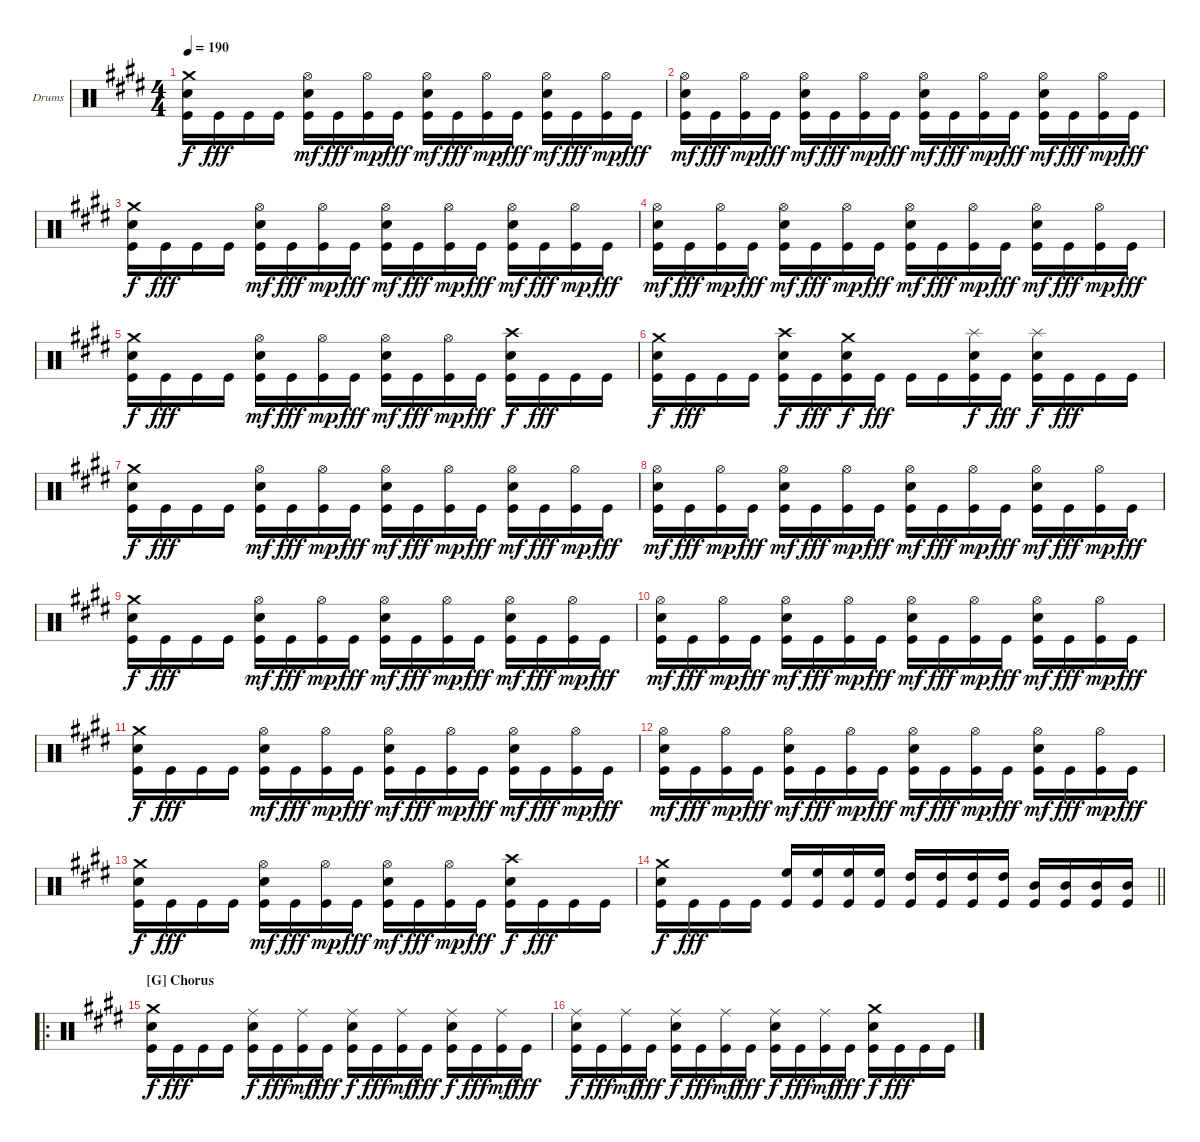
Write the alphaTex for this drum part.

\bracketExtendMode groupsimilarinstruments
\firstSystemTrackNameOrientation horizontal
\otherSystemsTrackNameOrientation horizontal
\track ("Drumkit" "Drums") {instrument percussion}
\staff {score}
\articulation defaults
\ts (4 4)
\tempo 190
\clef neutral
\ks c#minor
("Crash medium (hit)" "Snare (hit) 2" "Kick (hit)").16{dy f} "Kick (hit)".16{dy fff} "Kick (hit)".16 "Kick (hit)".16 ("Hi-Hat (open)" "Snare (hit) 2" "Kick (hit)").16{dy mf} "Kick (hit)".16{dy fff} ("Hi-Hat (open)" "Kick (hit)").16{dy mp} "Kick (hit)".16{dy fff} ("Hi-Hat (open)" "Snare (hit) 2" "Kick (hit)").16{dy mf} "Kick (hit)".16{dy fff} ("Hi-Hat (open)" "Kick (hit)").16{dy mp} "Kick (hit)".16{dy fff} ("Hi-Hat (open)" "Snare (hit) 2" "Kick (hit)").16{dy mf} "Kick (hit)".16{dy fff} ("Hi-Hat (open)" "Kick (hit)").16{dy mp} "Kick (hit)".16{dy fff} |
("Hi-Hat (open)" "Snare (hit) 2" "Kick (hit)").16{dy mf} "Kick (hit)".16{dy fff} ("Hi-Hat (open)" "Kick (hit)").16{dy mp} "Kick (hit)".16{dy fff} ("Hi-Hat (open)" "Snare (hit) 2" "Kick (hit)").16{dy mf} "Kick (hit)".16{dy fff} ("Hi-Hat (open)" "Kick (hit)").16{dy mp} "Kick (hit)".16{dy fff} ("Hi-Hat (open)" "Snare (hit) 2" "Kick (hit)").16{dy mf} "Kick (hit)".16{dy fff} ("Hi-Hat (open)" "Kick (hit)").16{dy mp} "Kick (hit)".16{dy fff} ("Hi-Hat (open)" "Snare (hit) 2" "Kick (hit)").16{dy mf} "Kick (hit)".16{dy fff} ("Hi-Hat (open)" "Kick (hit)").16{dy mp} "Kick (hit)".16{dy fff} |
("Crash medium (hit)" "Snare (hit) 2" "Kick (hit)").16{dy f} "Kick (hit)".16{dy fff} "Kick (hit)".16 "Kick (hit)".16 ("Hi-Hat (open)" "Snare (hit) 2" "Kick (hit)").16{dy mf} "Kick (hit)".16{dy fff} ("Hi-Hat (open)" "Kick (hit)").16{dy mp} "Kick (hit)".16{dy fff} ("Hi-Hat (open)" "Snare (hit) 2" "Kick (hit)").16{dy mf} "Kick (hit)".16{dy fff} ("Hi-Hat (open)" "Kick (hit)").16{dy mp} "Kick (hit)".16{dy fff} ("Hi-Hat (open)" "Snare (hit) 2" "Kick (hit)").16{dy mf} "Kick (hit)".16{dy fff} ("Hi-Hat (open)" "Kick (hit)").16{dy mp} "Kick (hit)".16{dy fff} |
("Hi-Hat (open)" "Snare (hit) 2" "Kick (hit)").16{dy mf} "Kick (hit)".16{dy fff} ("Hi-Hat (open)" "Kick (hit)").16{dy mp} "Kick (hit)".16{dy fff} ("Hi-Hat (open)" "Snare (hit) 2" "Kick (hit)").16{dy mf} "Kick (hit)".16{dy fff} ("Hi-Hat (open)" "Kick (hit)").16{dy mp} "Kick (hit)".16{dy fff} ("Hi-Hat (open)" "Snare (hit) 2" "Kick (hit)").16{dy mf} "Kick (hit)".16{dy fff} ("Hi-Hat (open)" "Kick (hit)").16{dy mp} "Kick (hit)".16{dy fff} ("Hi-Hat (open)" "Snare (hit) 2" "Kick (hit)").16{dy mf} "Kick (hit)".16{dy fff} ("Hi-Hat (open)" "Kick (hit)").16{dy mp} "Kick (hit)".16{dy fff} |
("Crash medium (hit)" "Snare (hit) 2" "Kick (hit)").16{dy f} "Kick (hit)".16{dy fff} "Kick (hit)".16 "Kick (hit)".16 ("Hi-Hat (open)" "Snare (hit) 2" "Kick (hit)").16{dy mf} "Kick (hit)".16{dy fff} ("Hi-Hat (open)" "Kick (hit)").16{dy mp} "Kick (hit)".16{dy fff} ("Hi-Hat (open)" "Snare (hit) 2" "Kick (hit)").16{dy mf} "Kick (hit)".16{dy fff} ("Hi-Hat (open)" "Kick (hit)").16{dy mp} "Kick (hit)".16{dy fff} ("Crash high (hit)" "Snare (hit) 2" "Kick (hit)").16{dy f} "Kick (hit)".16{dy fff} "Kick (hit)".16 "Kick (hit)".16 |
("Crash medium (hit)" "Snare (hit) 2" "Kick (hit)").16{dy f} "Kick (hit)".16{dy fff} "Kick (hit)".16 "Kick (hit)".16 ("Crash high (hit)" "Snare (hit) 2" "Kick (hit)").16{dy f} "Kick (hit)".16{dy fff} ("Crash medium (hit)" "Snare (hit) 2" "Kick (hit)").16{dy f} "Kick (hit)".16{dy fff} "Kick (hit)".16 "Kick (hit)".16 ("Splash (hit)" "Snare (hit) 2" "Kick (hit)").16{dy f} "Kick (hit)".16{dy fff} ("Splash (hit)" "Snare (hit) 2" "Kick (hit)").16{dy f} "Kick (hit)".16{dy fff} "Kick (hit)".16 "Kick (hit)".16 |
("Crash medium (hit)" "Snare (hit) 2" "Kick (hit)").16{dy f} "Kick (hit)".16{dy fff} "Kick (hit)".16 "Kick (hit)".16 ("Hi-Hat (open)" "Snare (hit) 2" "Kick (hit)").16{dy mf} "Kick (hit)".16{dy fff} ("Hi-Hat (open)" "Kick (hit)").16{dy mp} "Kick (hit)".16{dy fff} ("Hi-Hat (open)" "Snare (hit) 2" "Kick (hit)").16{dy mf} "Kick (hit)".16{dy fff} ("Hi-Hat (open)" "Kick (hit)").16{dy mp} "Kick (hit)".16{dy fff} ("Hi-Hat (open)" "Snare (hit) 2" "Kick (hit)").16{dy mf} "Kick (hit)".16{dy fff} ("Hi-Hat (open)" "Kick (hit)").16{dy mp} "Kick (hit)".16{dy fff} |
("Hi-Hat (open)" "Snare (hit) 2" "Kick (hit)").16{dy mf} "Kick (hit)".16{dy fff} ("Hi-Hat (open)" "Kick (hit)").16{dy mp} "Kick (hit)".16{dy fff} ("Hi-Hat (open)" "Snare (hit) 2" "Kick (hit)").16{dy mf} "Kick (hit)".16{dy fff} ("Hi-Hat (open)" "Kick (hit)").16{dy mp} "Kick (hit)".16{dy fff} ("Hi-Hat (open)" "Snare (hit) 2" "Kick (hit)").16{dy mf} "Kick (hit)".16{dy fff} ("Hi-Hat (open)" "Kick (hit)").16{dy mp} "Kick (hit)".16{dy fff} ("Hi-Hat (open)" "Snare (hit) 2" "Kick (hit)").16{dy mf} "Kick (hit)".16{dy fff} ("Hi-Hat (open)" "Kick (hit)").16{dy mp} "Kick (hit)".16{dy fff} |
("Crash medium (hit)" "Snare (hit) 2" "Kick (hit)").16{dy f} "Kick (hit)".16{dy fff} "Kick (hit)".16 "Kick (hit)".16 ("Hi-Hat (open)" "Snare (hit) 2" "Kick (hit)").16{dy mf} "Kick (hit)".16{dy fff} ("Hi-Hat (open)" "Kick (hit)").16{dy mp} "Kick (hit)".16{dy fff} ("Hi-Hat (open)" "Snare (hit) 2" "Kick (hit)").16{dy mf} "Kick (hit)".16{dy fff} ("Hi-Hat (open)" "Kick (hit)").16{dy mp} "Kick (hit)".16{dy fff} ("Hi-Hat (open)" "Snare (hit) 2" "Kick (hit)").16{dy mf} "Kick (hit)".16{dy fff} ("Hi-Hat (open)" "Kick (hit)").16{dy mp} "Kick (hit)".16{dy fff} |
("Hi-Hat (open)" "Snare (hit) 2" "Kick (hit)").16{dy mf} "Kick (hit)".16{dy fff} ("Hi-Hat (open)" "Kick (hit)").16{dy mp} "Kick (hit)".16{dy fff} ("Hi-Hat (open)" "Snare (hit) 2" "Kick (hit)").16{dy mf} "Kick (hit)".16{dy fff} ("Hi-Hat (open)" "Kick (hit)").16{dy mp} "Kick (hit)".16{dy fff} ("Hi-Hat (open)" "Snare (hit) 2" "Kick (hit)").16{dy mf} "Kick (hit)".16{dy fff} ("Hi-Hat (open)" "Kick (hit)").16{dy mp} "Kick (hit)".16{dy fff} ("Hi-Hat (open)" "Snare (hit) 2" "Kick (hit)").16{dy mf} "Kick (hit)".16{dy fff} ("Hi-Hat (open)" "Kick (hit)").16{dy mp} "Kick (hit)".16{dy fff} |
("Crash medium (hit)" "Snare (hit) 2" "Kick (hit)").16{dy f} "Kick (hit)".16{dy fff} "Kick (hit)".16 "Kick (hit)".16 ("Hi-Hat (open)" "Snare (hit) 2" "Kick (hit)").16{dy mf} "Kick (hit)".16{dy fff} ("Hi-Hat (open)" "Kick (hit)").16{dy mp} "Kick (hit)".16{dy fff} ("Hi-Hat (open)" "Snare (hit) 2" "Kick (hit)").16{dy mf} "Kick (hit)".16{dy fff} ("Hi-Hat (open)" "Kick (hit)").16{dy mp} "Kick (hit)".16{dy fff} ("Hi-Hat (open)" "Snare (hit) 2" "Kick (hit)").16{dy mf} "Kick (hit)".16{dy fff} ("Hi-Hat (open)" "Kick (hit)").16{dy mp} "Kick (hit)".16{dy fff} |
("Hi-Hat (open)" "Snare (hit) 2" "Kick (hit)").16{dy mf} "Kick (hit)".16{dy fff} ("Hi-Hat (open)" "Kick (hit)").16{dy mp} "Kick (hit)".16{dy fff} ("Hi-Hat (open)" "Snare (hit) 2" "Kick (hit)").16{dy mf} "Kick (hit)".16{dy fff} ("Hi-Hat (open)" "Kick (hit)").16{dy mp} "Kick (hit)".16{dy fff} ("Hi-Hat (open)" "Snare (hit) 2" "Kick (hit)").16{dy mf} "Kick (hit)".16{dy fff} ("Hi-Hat (open)" "Kick (hit)").16{dy mp} "Kick (hit)".16{dy fff} ("Hi-Hat (open)" "Snare (hit) 2" "Kick (hit)").16{dy mf} "Kick (hit)".16{dy fff} ("Hi-Hat (open)" "Kick (hit)").16{dy mp} "Kick (hit)".16{dy fff} |
("Crash medium (hit)" "Snare (hit) 2" "Kick (hit)").16{dy f} "Kick (hit)".16{dy fff} "Kick (hit)".16 "Kick (hit)".16 ("Hi-Hat (open)" "Snare (hit) 2" "Kick (hit)").16{dy mf} "Kick (hit)".16{dy fff} ("Hi-Hat (open)" "Kick (hit)").16{dy mp} "Kick (hit)".16{dy fff} ("Hi-Hat (open)" "Snare (hit) 2" "Kick (hit)").16{dy mf} "Kick (hit)".16{dy fff} ("Hi-Hat (open)" "Kick (hit)").16{dy mp} "Kick (hit)".16{dy fff} ("Crash high (hit)" "Snare (hit) 2" "Kick (hit)").16{dy f} "Kick (hit)".16{dy fff} "Kick (hit)".16 "Kick (hit)".16 |
\barLineRight lightlight
("Crash medium (hit)" "Snare (hit) 2" "Kick (hit)").16{dy f} "Kick (hit)".16{dy fff} "Kick (hit)".16 "Kick (hit)".16 ("High Floor Tom (hit)" "Kick (hit)").16 ("High Floor Tom (hit)" "Kick (hit)").16 ("High Floor Tom (hit)" "Kick (hit)").16 ("High Floor Tom (hit)" "Kick (hit)").16 ("High Tom (hit)" "Kick (hit)").16 ("High Tom (hit)" "Kick (hit)").16 ("High Tom (hit)" "Kick (hit)").16 ("High Tom (hit)" "Kick (hit)").16 ("Mid Tom (hit)" "Kick (hit)").16 ("Mid Tom (hit)" "Kick (hit)").16 ("Mid Tom (hit)" "Kick (hit)").16 ("Mid Tom (hit)" "Kick (hit)").16 |
\ro
\section ("G" "Chorus")
("Crash medium (hit)" "Snare (hit) 2" "Kick (hit)").16{dy f} "Kick (hit)".16{dy fff} "Kick (hit)".16 "Kick (hit)".16 ("Ride (middle)" "Snare (hit) 2" "Kick (hit)").16{dy f} "Kick (hit)".16{dy fff} ("Ride (middle)" "Kick (hit)").16{dy mf} "Kick (hit)".16{dy fff} ("Ride (middle)" "Snare (hit) 2" "Kick (hit)").16{dy f} "Kick (hit)".16{dy fff} ("Ride (middle)" "Kick (hit)").16{dy mf} "Kick (hit)".16{dy fff} ("Ride (middle)" "Snare (hit) 2" "Kick (hit)").16{dy f} "Kick (hit)".16{dy fff} ("Ride (middle)" "Kick (hit)").16{dy mf} "Kick (hit)".16{dy fff} |
("Ride (middle)" "Snare (hit) 2" "Kick (hit)").16{dy f} "Kick (hit)".16{dy fff} ("Ride (middle)" "Kick (hit)").16{dy mf} "Kick (hit)".16{dy fff} ("Ride (middle)" "Snare (hit) 2" "Kick (hit)").16{dy f} "Kick (hit)".16{dy fff} ("Ride (middle)" "Kick (hit)").16{dy mf} "Kick (hit)".16{dy fff} ("Ride (middle)" "Snare (hit) 2" "Kick (hit)").16{dy f} "Kick (hit)".16{dy fff} ("Ride (middle)" "Kick (hit)").16{dy mf} "Kick (hit)".16{dy fff} ("Crash medium (hit)" "Snare (hit) 2" "Kick (hit)").16{dy f} "Kick (hit)".16{dy fff} "Kick (hit)".16 "Kick (hit)".16
